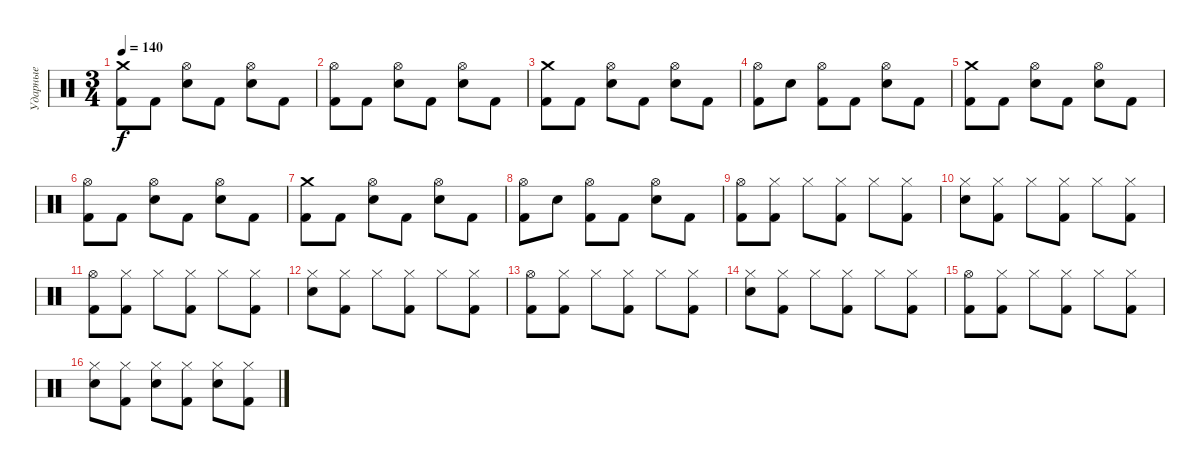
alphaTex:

\track ("Ударные" "Ударные") {instrument percussion}
\staff {score}
\articulation defaults
\ts (3 4)
\tempo 140
\clef neutral
\ks c
("Crash medium (hit)" "Kick (hit) 2").8{dy f} "Kick (hit) 2".8 ("Hi-Hat (open)" "Electric Snare (hit)").8 "Kick (hit) 2".8 ("Hi-Hat (open)" "Electric Snare (hit)").8 "Kick (hit) 2".8 |
("Hi-Hat (open)" "Kick (hit) 2").8 "Kick (hit) 2".8 ("Hi-Hat (open)" "Electric Snare (hit)").8 "Kick (hit) 2".8 ("Hi-Hat (open)" "Electric Snare (hit)").8 "Kick (hit) 2".8 |
("Crash medium (hit)" "Kick (hit) 2").8 "Kick (hit) 2".8 ("Hi-Hat (open)" "Electric Snare (hit)").8 "Kick (hit) 2".8 ("Hi-Hat (open)" "Electric Snare (hit)").8 "Kick (hit) 2".8 |
("Hi-Hat (open)" "Kick (hit) 2").8 "Electric Snare (hit)".8 ("Hi-Hat (open)" "Kick (hit) 2").8 "Kick (hit) 2".8 ("Hi-Hat (open)" "Electric Snare (hit)").8 "Kick (hit) 2".8 |
("Crash medium (hit)" "Kick (hit) 2").8 "Kick (hit) 2".8 ("Hi-Hat (open)" "Electric Snare (hit)").8 "Kick (hit) 2".8 ("Hi-Hat (open)" "Electric Snare (hit)").8 "Kick (hit) 2".8 |
("Hi-Hat (open)" "Kick (hit) 2").8 "Kick (hit) 2".8 ("Hi-Hat (open)" "Electric Snare (hit)").8 "Kick (hit) 2".8 ("Hi-Hat (open)" "Electric Snare (hit)").8 "Kick (hit) 2".8 |
("Crash medium (hit)" "Kick (hit) 2").8 "Kick (hit) 2".8 ("Hi-Hat (open)" "Electric Snare (hit)").8 "Kick (hit) 2".8 ("Hi-Hat (open)" "Electric Snare (hit)").8 "Kick (hit) 2".8 |
("Hi-Hat (open)" "Kick (hit) 2").8 "Electric Snare (hit)".8 ("Hi-Hat (open)" "Kick (hit) 2").8 "Kick (hit) 2".8 ("Hi-Hat (open)" "Electric Snare (hit)").8 "Kick (hit) 2".8 |
("Hi-Hat (open)" "Kick (hit) 2").8 ("Hi-Hat (closed)" "Kick (hit) 2").8 "Hi-Hat (closed)".8 ("Hi-Hat (closed)" "Kick (hit) 2").8 "Hi-Hat (closed)".8 ("Hi-Hat (closed)" "Kick (hit) 2").8 |
("Hi-Hat (closed)" "Electric Snare (hit)").8 ("Hi-Hat (closed)" "Kick (hit) 2").8 "Hi-Hat (closed)".8 ("Hi-Hat (closed)" "Kick (hit) 2").8 "Hi-Hat (closed)".8 ("Hi-Hat (closed)" "Kick (hit) 2").8 |
("Hi-Hat (open)" "Kick (hit) 2").8 ("Hi-Hat (closed)" "Kick (hit) 2").8 "Hi-Hat (closed)".8 ("Hi-Hat (closed)" "Kick (hit) 2").8 "Hi-Hat (closed)".8 ("Hi-Hat (closed)" "Kick (hit) 2").8 |
("Hi-Hat (closed)" "Electric Snare (hit)").8 ("Hi-Hat (closed)" "Kick (hit) 2").8 "Hi-Hat (closed)".8 ("Hi-Hat (closed)" "Kick (hit) 2").8 "Hi-Hat (closed)".8 ("Hi-Hat (closed)" "Kick (hit) 2").8 |
("Hi-Hat (open)" "Kick (hit) 2").8 ("Hi-Hat (closed)" "Kick (hit) 2").8 "Hi-Hat (closed)".8 ("Hi-Hat (closed)" "Kick (hit) 2").8 "Hi-Hat (closed)".8 ("Hi-Hat (closed)" "Kick (hit) 2").8 |
("Hi-Hat (closed)" "Electric Snare (hit)").8 ("Hi-Hat (closed)" "Kick (hit) 2").8 "Hi-Hat (closed)".8 ("Hi-Hat (closed)" "Kick (hit) 2").8 "Hi-Hat (closed)".8 ("Hi-Hat (closed)" "Kick (hit) 2").8 |
("Hi-Hat (open)" "Kick (hit) 2").8 ("Hi-Hat (closed)" "Kick (hit) 2").8 "Hi-Hat (closed)".8 ("Hi-Hat (closed)" "Kick (hit) 2").8 "Hi-Hat (closed)".8 ("Hi-Hat (closed)" "Kick (hit) 2").8 |
("Hi-Hat (closed)" "Electric Snare (hit)").8 ("Hi-Hat (closed)" "Kick (hit) 2").8 ("Hi-Hat (closed)" "Electric Snare (hit)").8 ("Hi-Hat (closed)" "Kick (hit) 2").8 ("Hi-Hat (closed)" "Electric Snare (hit)").8 ("Hi-Hat (closed)" "Kick (hit) 2").8
